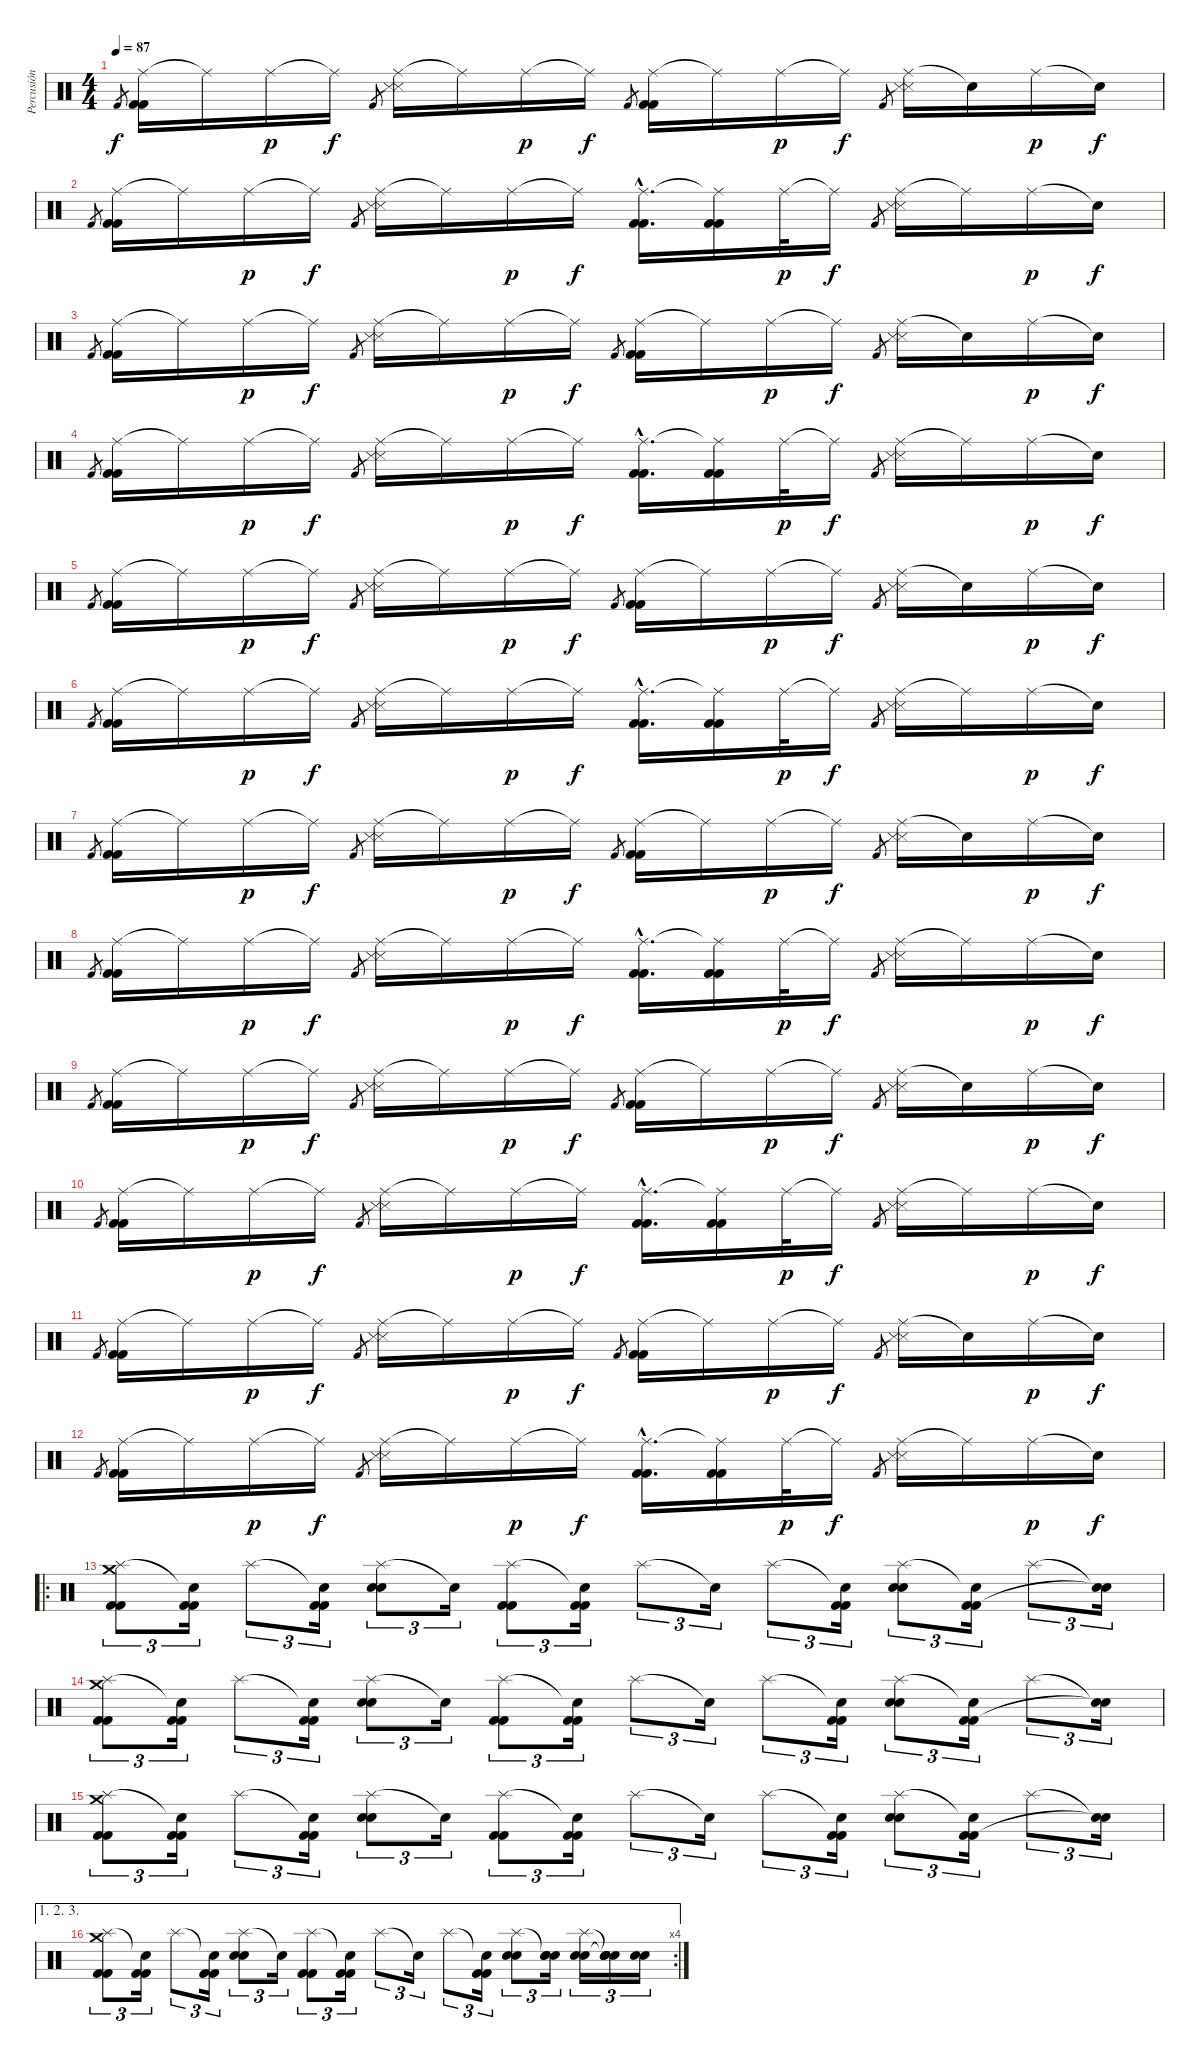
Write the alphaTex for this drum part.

\track ("Percusión" "Percusión") {instrument percussion}
\staff {score}
\articulation defaults
\ts (4 4)
\tempo 87
\clef neutral
\ks c "Kick (hit) 2".8{gr dy f}
("Ride (middle)" "Kick (hit) 2" "Kick (hit) 2").16 "Ride (middle)"{t}.16 "Ride (middle)".16{dy p} "Ride (middle)"{t}.16{dy f} "Kick (hit) 2".8{gr} ("Ride (middle)" "Snare (side stick) 3" "Snare (side stick) 3").16 "Ride (middle)"{t}.16 "Ride (middle)".16{dy p} "Ride (middle)"{t}.16{dy f} "Kick (hit) 2".8{gr} ("Ride (middle)" "Kick (hit) 2" "Kick (hit) 2").16 "Ride (middle)"{t}.16 "Ride (middle)".16{dy p} "Ride (middle)"{t}.16{dy f} "Kick (hit) 2".8{gr} ("Ride (middle)" "Snare (side stick) 3" "Snare (side stick) 3").16 "Snare (hit)"{t}.16 "Ride (middle)".16{dy p} "Snare (hit)"{t}.16{dy f} |
"Kick (hit) 2".8{gr} ("Ride (middle)" "Kick (hit) 2" "Kick (hit) 2").16 "Ride (middle)"{t}.16 "Ride (middle)".16{dy p} "Ride (middle)"{t}.16{dy f} "Kick (hit) 2".8{gr} ("Ride (middle)" "Snare (side stick) 3" "Snare (side stick) 3").16 "Ride (middle)"{t}.16 "Ride (middle)".16{dy p} "Ride (middle)"{t}.16{dy f} ("Ride (middle)"{hac} "Kick (hit) 2"{hac} "Kick (hit) 2"{hac}).16{d} ("Ride (middle)"{t} "Kick (hit) 2" "Kick (hit) 2").16 "Ride (middle)".32{dy p} "Ride (middle)"{t}.16{dy f} "Kick (hit) 2".8{gr} ("Ride (middle)" "Snare (side stick) 3" "Snare (side stick) 3").16 "Ride (middle)"{t}.16 "Ride (middle)".16{dy p} "Snare (hit)"{t}.16{dy f} |
"Kick (hit) 2".8{gr} ("Ride (middle)" "Kick (hit) 2" "Kick (hit) 2").16 "Ride (middle)"{t}.16 "Ride (middle)".16{dy p} "Ride (middle)"{t}.16{dy f} "Kick (hit) 2".8{gr} ("Ride (middle)" "Snare (side stick) 3" "Snare (side stick) 3").16 "Ride (middle)"{t}.16 "Ride (middle)".16{dy p} "Ride (middle)"{t}.16{dy f} "Kick (hit) 2".8{gr} ("Ride (middle)" "Kick (hit) 2" "Kick (hit) 2").16 "Ride (middle)"{t}.16 "Ride (middle)".16{dy p} "Ride (middle)"{t}.16{dy f} "Kick (hit) 2".8{gr} ("Ride (middle)" "Snare (side stick) 3" "Snare (side stick) 3").16 "Snare (hit)"{t}.16 "Ride (middle)".16{dy p} "Snare (hit)"{t}.16{dy f} |
"Kick (hit) 2".8{gr} ("Ride (middle)" "Kick (hit) 2" "Kick (hit) 2").16 "Ride (middle)"{t}.16 "Ride (middle)".16{dy p} "Ride (middle)"{t}.16{dy f} "Kick (hit) 2".8{gr} ("Ride (middle)" "Snare (side stick) 3" "Snare (side stick) 3").16 "Ride (middle)"{t}.16 "Ride (middle)".16{dy p} "Ride (middle)"{t}.16{dy f} ("Ride (middle)"{hac} "Kick (hit) 2"{hac} "Kick (hit) 2"{hac}).16{d} ("Ride (middle)"{t} "Kick (hit) 2" "Kick (hit) 2").16 "Ride (middle)".32{dy p} "Ride (middle)"{t}.16{dy f} "Kick (hit) 2".8{gr} ("Ride (middle)" "Snare (side stick) 3" "Snare (side stick) 3").16 "Ride (middle)"{t}.16 "Ride (middle)".16{dy p} "Snare (hit)"{t}.16{dy f} |
"Kick (hit) 2".8{gr} ("Ride (middle)" "Kick (hit) 2" "Kick (hit) 2").16 "Ride (middle)"{t}.16 "Ride (middle)".16{dy p} "Ride (middle)"{t}.16{dy f} "Kick (hit) 2".8{gr} ("Ride (middle)" "Snare (side stick) 3" "Snare (side stick) 3").16 "Ride (middle)"{t}.16 "Ride (middle)".16{dy p} "Ride (middle)"{t}.16{dy f} "Kick (hit) 2".8{gr} ("Ride (middle)" "Kick (hit) 2" "Kick (hit) 2").16 "Ride (middle)"{t}.16 "Ride (middle)".16{dy p} "Ride (middle)"{t}.16{dy f} "Kick (hit) 2".8{gr} ("Ride (middle)" "Snare (side stick) 3" "Snare (side stick) 3").16 "Snare (hit)"{t}.16 "Ride (middle)".16{dy p} "Snare (hit)"{t}.16{dy f} |
"Kick (hit) 2".8{gr} ("Ride (middle)" "Kick (hit) 2" "Kick (hit) 2").16 "Ride (middle)"{t}.16 "Ride (middle)".16{dy p} "Ride (middle)"{t}.16{dy f} "Kick (hit) 2".8{gr} ("Ride (middle)" "Snare (side stick) 3" "Snare (side stick) 3").16 "Ride (middle)"{t}.16 "Ride (middle)".16{dy p} "Ride (middle)"{t}.16{dy f} ("Ride (middle)"{hac} "Kick (hit) 2"{hac} "Kick (hit) 2"{hac}).16{d} ("Ride (middle)"{t} "Kick (hit) 2" "Kick (hit) 2").16 "Ride (middle)".32{dy p} "Ride (middle)"{t}.16{dy f} "Kick (hit) 2".8{gr} ("Ride (middle)" "Snare (side stick) 3" "Snare (side stick) 3").16 "Ride (middle)"{t}.16 "Ride (middle)".16{dy p} "Snare (hit)"{t}.16{dy f} |
"Kick (hit) 2".8{gr} ("Ride (middle)" "Kick (hit) 2" "Kick (hit) 2").16 "Ride (middle)"{t}.16 "Ride (middle)".16{dy p} "Ride (middle)"{t}.16{dy f} "Kick (hit) 2".8{gr} ("Ride (middle)" "Snare (side stick) 3" "Snare (side stick) 3").16 "Ride (middle)"{t}.16 "Ride (middle)".16{dy p} "Ride (middle)"{t}.16{dy f} "Kick (hit) 2".8{gr} ("Ride (middle)" "Kick (hit) 2" "Kick (hit) 2").16 "Ride (middle)"{t}.16 "Ride (middle)".16{dy p} "Ride (middle)"{t}.16{dy f} "Kick (hit) 2".8{gr} ("Ride (middle)" "Snare (side stick) 3" "Snare (side stick) 3").16 "Snare (hit)"{t}.16 "Ride (middle)".16{dy p} "Snare (hit)"{t}.16{dy f} |
"Kick (hit) 2".8{gr} ("Ride (middle)" "Kick (hit) 2" "Kick (hit) 2").16 "Ride (middle)"{t}.16 "Ride (middle)".16{dy p} "Ride (middle)"{t}.16{dy f} "Kick (hit) 2".8{gr} ("Ride (middle)" "Snare (side stick) 3" "Snare (side stick) 3").16 "Ride (middle)"{t}.16 "Ride (middle)".16{dy p} "Ride (middle)"{t}.16{dy f} ("Ride (middle)"{hac} "Kick (hit) 2"{hac} "Kick (hit) 2"{hac}).16{d} ("Ride (middle)"{t} "Kick (hit) 2" "Kick (hit) 2").16 "Ride (middle)".32{dy p} "Ride (middle)"{t}.16{dy f} "Kick (hit) 2".8{gr} ("Ride (middle)" "Snare (side stick) 3" "Snare (side stick) 3").16 "Ride (middle)"{t}.16 "Ride (middle)".16{dy p} "Snare (hit)"{t}.16{dy f} |
"Kick (hit) 2".8{gr} ("Ride (middle)" "Kick (hit) 2" "Kick (hit) 2").16 "Ride (middle)"{t}.16 "Ride (middle)".16{dy p} "Ride (middle)"{t}.16{dy f} "Kick (hit) 2".8{gr} ("Ride (middle)" "Snare (side stick) 3" "Snare (side stick) 3").16 "Ride (middle)"{t}.16 "Ride (middle)".16{dy p} "Ride (middle)"{t}.16{dy f} "Kick (hit) 2".8{gr} ("Ride (middle)" "Kick (hit) 2" "Kick (hit) 2").16 "Ride (middle)"{t}.16 "Ride (middle)".16{dy p} "Ride (middle)"{t}.16{dy f} "Kick (hit) 2".8{gr} ("Ride (middle)" "Snare (side stick) 3" "Snare (side stick) 3").16 "Snare (hit)"{t}.16 "Ride (middle)".16{dy p} "Snare (hit)"{t}.16{dy f} |
"Kick (hit) 2".8{gr} ("Ride (middle)" "Kick (hit) 2" "Kick (hit) 2").16 "Ride (middle)"{t}.16 "Ride (middle)".16{dy p} "Ride (middle)"{t}.16{dy f} "Kick (hit) 2".8{gr} ("Ride (middle)" "Snare (side stick) 3" "Snare (side stick) 3").16 "Ride (middle)"{t}.16 "Ride (middle)".16{dy p} "Ride (middle)"{t}.16{dy f} ("Ride (middle)"{hac} "Kick (hit) 2"{hac} "Kick (hit) 2"{hac}).16{d} ("Ride (middle)"{t} "Kick (hit) 2" "Kick (hit) 2").16 "Ride (middle)".32{dy p} "Ride (middle)"{t}.16{dy f} "Kick (hit) 2".8{gr} ("Ride (middle)" "Snare (side stick) 3" "Snare (side stick) 3").16 "Ride (middle)"{t}.16 "Ride (middle)".16{dy p} "Snare (hit)"{t}.16{dy f} |
"Kick (hit) 2".8{gr} ("Ride (middle)" "Kick (hit) 2" "Kick (hit) 2").16 "Ride (middle)"{t}.16 "Ride (middle)".16{dy p} "Ride (middle)"{t}.16{dy f} "Kick (hit) 2".8{gr} ("Ride (middle)" "Snare (side stick) 3" "Snare (side stick) 3").16 "Ride (middle)"{t}.16 "Ride (middle)".16{dy p} "Ride (middle)"{t}.16{dy f} "Kick (hit) 2".8{gr} ("Ride (middle)" "Kick (hit) 2" "Kick (hit) 2").16 "Ride (middle)"{t}.16 "Ride (middle)".16{dy p} "Ride (middle)"{t}.16{dy f} "Kick (hit) 2".8{gr} ("Ride (middle)" "Snare (side stick) 3" "Snare (side stick) 3").16 "Snare (hit)"{t}.16 "Ride (middle)".16{dy p} "Snare (hit)"{t}.16{dy f} |
"Kick (hit) 2".8{gr} ("Ride (middle)" "Kick (hit) 2" "Kick (hit) 2").16 "Ride (middle)"{t}.16 "Ride (middle)".16{dy p} "Ride (middle)"{t}.16{dy f} "Kick (hit) 2".8{gr} ("Ride (middle)" "Snare (side stick) 3" "Snare (side stick) 3").16 "Ride (middle)"{t}.16 "Ride (middle)".16{dy p} "Ride (middle)"{t}.16{dy f} ("Ride (middle)"{hac} "Kick (hit) 2"{hac} "Kick (hit) 2"{hac}).16{d} ("Ride (middle)"{t} "Kick (hit) 2" "Kick (hit) 2").16 "Ride (middle)".32{dy p} "Ride (middle)"{t}.16{dy f} "Kick (hit) 2".8{gr} ("Ride (middle)" "Snare (side stick) 3" "Snare (side stick) 3").16 "Ride (middle)"{t}.16 "Ride (middle)".16{dy p} "Snare (hit)"{t}.16{dy f} |
\ro
("Splash (hit)" "Crash medium (hit)" "Kick (hit) 2" "Kick (hit) 2").8{tu (3 2)} ("Snare (hit)"{t} "Kick (hit) 2" "Kick (hit) 2").16{tu (3 2)} "Splash (hit)".8{tu (3 2)} ("Snare (hit)"{t} "Kick (hit) 2" "Kick (hit) 2").16{tu (3 2)} ("Splash (hit)" "Electric Snare (hit)" "Electric Snare (hit)").8{tu (3 2)} "Snare (hit)"{t}.16{tu (3 2)} ("Splash (hit)" "Kick (hit) 2" "Kick (hit) 2").8{tu (3 2)} ("Snare (hit)"{t} "Kick (hit) 2" "Kick (hit) 2").16{tu (3 2)} "Splash (hit)".8{tu (3 2)} "Snare (hit)"{t}.16{tu (3 2)} "Splash (hit)".8{tu (3 2)} ("Snare (hit)"{t} "Kick (hit) 2" "Kick (hit) 2").16{tu (3 2)} ("Splash (hit)" "Electric Snare (hit)" "Electric Snare (hit)").8{tu (3 2)} ("Snare (hit)"{t} "Kick (hit) 2" "Kick (hit) 2").16{tu (3 2)} "Splash (hit)".8{tu (3 2)} ("Snare (hit)"{t} "Snare (hit)"{t}).16{tu (3 2)} |
("Splash (hit)" "Crash medium (hit)" "Kick (hit) 2" "Kick (hit) 2").8{tu (3 2)} ("Snare (hit)"{t} "Kick (hit) 2" "Kick (hit) 2").16{tu (3 2)} "Splash (hit)".8{tu (3 2)} ("Snare (hit)"{t} "Kick (hit) 2" "Kick (hit) 2").16{tu (3 2)} ("Splash (hit)" "Electric Snare (hit)" "Electric Snare (hit)").8{tu (3 2)} "Snare (hit)"{t}.16{tu (3 2)} ("Splash (hit)" "Kick (hit) 2" "Kick (hit) 2").8{tu (3 2)} ("Snare (hit)"{t} "Kick (hit) 2" "Kick (hit) 2").16{tu (3 2)} "Splash (hit)".8{tu (3 2)} "Snare (hit)"{t}.16{tu (3 2)} "Splash (hit)".8{tu (3 2)} ("Snare (hit)"{t} "Kick (hit) 2" "Kick (hit) 2").16{tu (3 2)} ("Splash (hit)" "Electric Snare (hit)" "Electric Snare (hit)").8{tu (3 2)} ("Snare (hit)"{t} "Kick (hit) 2" "Kick (hit) 2").16{tu (3 2)} "Splash (hit)".8{tu (3 2)} ("Snare (hit)"{t} "Snare (hit)"{t}).16{tu (3 2)} |
("Splash (hit)" "Crash medium (hit)" "Kick (hit) 2" "Kick (hit) 2").8{tu (3 2)} ("Snare (hit)"{t} "Kick (hit) 2" "Kick (hit) 2").16{tu (3 2)} "Splash (hit)".8{tu (3 2)} ("Snare (hit)"{t} "Kick (hit) 2" "Kick (hit) 2").16{tu (3 2)} ("Splash (hit)" "Electric Snare (hit)" "Electric Snare (hit)").8{tu (3 2)} "Snare (hit)"{t}.16{tu (3 2)} ("Splash (hit)" "Kick (hit) 2" "Kick (hit) 2").8{tu (3 2)} ("Snare (hit)"{t} "Kick (hit) 2" "Kick (hit) 2").16{tu (3 2)} "Splash (hit)".8{tu (3 2)} "Snare (hit)"{t}.16{tu (3 2)} "Splash (hit)".8{tu (3 2)} ("Snare (hit)"{t} "Kick (hit) 2" "Kick (hit) 2").16{tu (3 2)} ("Splash (hit)" "Electric Snare (hit)" "Electric Snare (hit)").8{tu (3 2)} ("Snare (hit)"{t} "Kick (hit) 2" "Kick (hit) 2").16{tu (3 2)} "Splash (hit)".8{tu (3 2)} ("Snare (hit)"{t} "Snare (hit)"{t}).16{tu (3 2)} |
\ae (1 2 3)
\rc 4
("Splash (hit)" "Crash medium (hit)" "Kick (hit) 2" "Kick (hit) 2").8{tu (3 2)} ("Snare (hit)"{t} "Kick (hit) 2" "Kick (hit) 2").16{tu (3 2)} "Splash (hit)".8{tu (3 2)} ("Snare (hit)"{t} "Kick (hit) 2" "Kick (hit) 2").16{tu (3 2)} ("Splash (hit)" "Electric Snare (hit)" "Electric Snare (hit)").8{tu (3 2)} "Snare (hit)"{t}.16{tu (3 2)} ("Splash (hit)" "Kick (hit) 2" "Kick (hit) 2").8{tu (3 2)} ("Snare (hit)"{t} "Kick (hit) 2" "Kick (hit) 2").16{tu (3 2)} "Splash (hit)".8{tu (3 2)} "Snare (hit)"{t}.16{tu (3 2)} "Splash (hit)".8{tu (3 2)} ("Snare (hit)"{t} "Kick (hit) 2" "Kick (hit) 2").16{tu (3 2)} ("Splash (hit)" "Electric Snare (hit)" "Electric Snare (hit)").8{tu (3 2)} ("Snare (hit)"{t} "Electric Snare (hit)" "Electric Snare (hit)").16{tu (3 2)} ("Splash (hit)" "Electric Snare (hit)" "Electric Snare (hit)").16{tu (3 2)} ("Snare (hit)"{t} "Snare (hit)"{t} "Electric Snare (hit)" "Electric Snare (hit)").16{tu (3 2)} ("Electric Snare (hit)" "Electric Snare (hit)").16{tu (3 2)}
